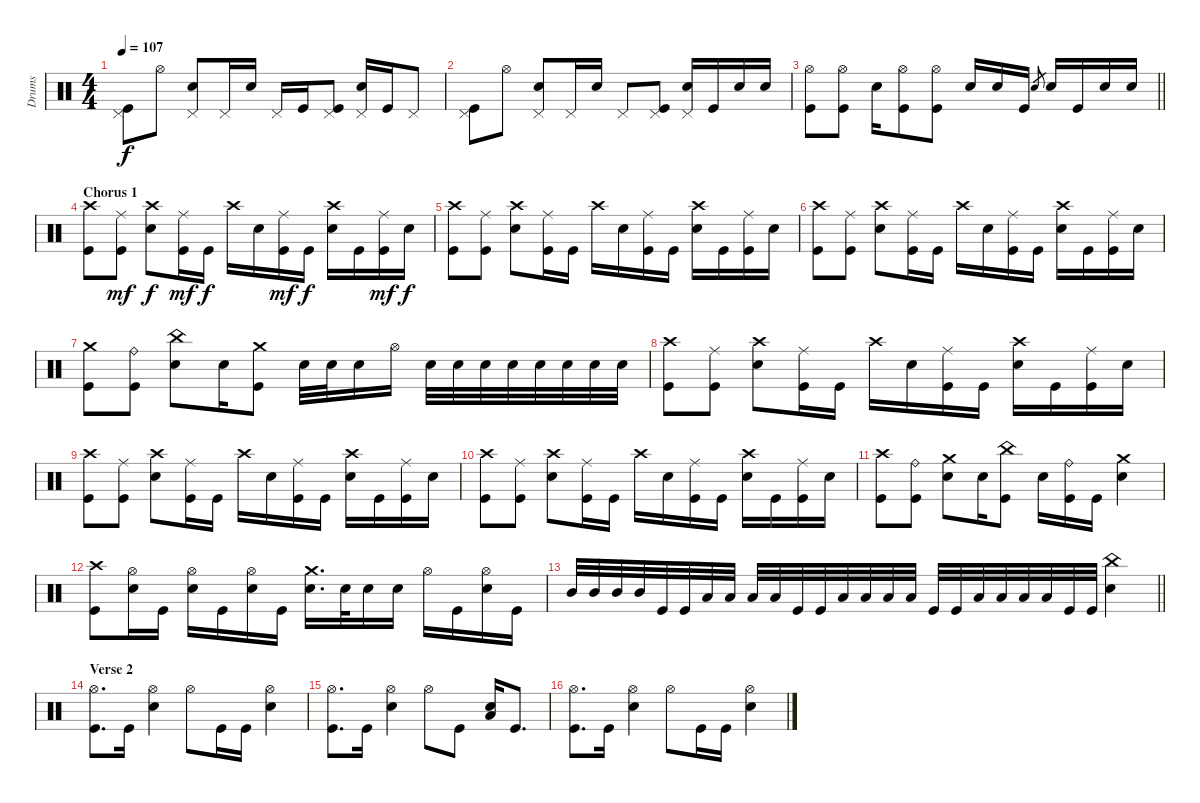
\track ("Drums" "Drums") {instrument percussion}
\staff {score}
\articulation defaults
\ts (4 4)
\tempo 107
\clef neutral
\ks c
("Pedal Hi-Hat (hit)" "Kick (hit)").8{dy f} "Hi-Hat (open)".8 ("Pedal Hi-Hat (hit)" "Snare (hit) 2").8 "Pedal Hi-Hat (hit)".16 "Snare (hit) 2".16 "Pedal Hi-Hat (hit)".16 "Kick (hit)".16 ("Pedal Hi-Hat (hit)" "Kick (hit)").8 ("Pedal Hi-Hat (hit)" "Snare (hit) 2").16 "Kick (hit)".16 "Pedal Hi-Hat (hit)".8 |
("Pedal Hi-Hat (hit)" "Kick (hit)").8 "Hi-Hat (open)".8 ("Pedal Hi-Hat (hit)" "Snare (hit) 2").8 "Pedal Hi-Hat (hit)".16 "Snare (hit) 2".16 "Pedal Hi-Hat (hit)".8 ("Pedal Hi-Hat (hit)" "Kick (hit)").8 ("Pedal Hi-Hat (hit)" "Snare (hit) 2").16 "Kick (hit)".16 "Snare (hit) 2".16 "Snare (hit) 2".16 |
\barLineRight lightlight
("Hi-Hat (open)" "Kick (hit)").8 ("Hi-Hat (open)" "Kick (hit)").8 "Snare (hit) 2".16 ("Hi-Hat (open)" "Kick (hit)").8 ("Hi-Hat (open)" "Kick (hit)").8 "Snare (hit) 2".16 "Snare (hit) 2".16 "Kick (hit)".16 "Snare (hit) 2".8{gr} "Snare (hit) 2".16 "Kick (hit)".16 "Snare (hit) 2".16 "Snare (hit) 2".16 |
\section ("" "Chorus 1")
("Crash high (hit)" "Kick (hit)").8 ("Ride (middle)" "Kick (hit)").8{dy mf} ("Crash high (hit)" "Snare (hit) 2").8{dy f} ("Ride (middle)" "Kick (hit)").16{dy mf} "Kick (hit)".16{dy f} "Crash high (hit)".16 "Snare (hit) 2".16 ("Ride (middle)" "Kick (hit)").16{dy mf} "Kick (hit)".16{dy f} ("Crash high (hit)" "Snare (hit) 2").16 "Kick (hit)".16 ("Ride (middle)" "Kick (hit)").16{dy mf} "Snare (hit) 2".16{dy f} |
("Crash high (hit)" "Kick (hit)").8 ("Ride (middle)" "Kick (hit)").8 ("Crash high (hit)" "Snare (hit) 2").8 ("Ride (middle)" "Kick (hit)").16 "Kick (hit)".16 "Crash high (hit)".16 "Snare (hit) 2".16 ("Ride (middle)" "Kick (hit)").16 "Kick (hit)".16 ("Crash high (hit)" "Snare (hit) 2").16 "Kick (hit)".16 ("Ride (middle)" "Kick (hit)").16 "Snare (hit) 2".16 |
("Crash high (hit)" "Kick (hit)").8 ("Ride (middle)" "Kick (hit)").8 ("Crash high (hit)" "Snare (hit) 2").8 ("Ride (middle)" "Kick (hit)").16 "Kick (hit)".16 "Crash high (hit)".16 "Snare (hit) 2".16 ("Ride (middle)" "Kick (hit)").16 "Kick (hit)".16 ("Crash high (hit)" "Snare (hit) 2").16 "Kick (hit)".16 ("Ride (middle)" "Kick (hit)").16 "Snare (hit) 2".16 |
("Crash medium (hit)" "Kick (hit)").8 ("Ride (bell)" "Kick (hit)").8 ("China (hit)" "Snare (hit) 2").8 "Snare (hit) 2".16 ("Crash medium (hit)" "Kick (hit)").8 "Snare (hit) 2".32 "Snare (hit) 2".32 "Snare (hit) 2".16 "Hi-Hat (open)".16 "Snare (hit) 2".32 "Snare (hit) 2".32 "Snare (hit) 2".32 "Snare (hit) 2".32 "Snare (hit) 2".32 "Snare (hit) 2".32 "Snare (hit) 2".32 "Snare (hit) 2".32 |
("Crash high (hit)" "Kick (hit)").8 ("Ride (middle)" "Kick (hit)").8 ("Crash high (hit)" "Snare (hit) 2").8 ("Ride (middle)" "Kick (hit)").16 "Kick (hit)".16 "Crash high (hit)".16 "Snare (hit) 2".16 ("Ride (middle)" "Kick (hit)").16 "Kick (hit)".16 ("Crash high (hit)" "Snare (hit) 2").16 "Kick (hit)".16 ("Ride (middle)" "Kick (hit)").16 "Snare (hit) 2".16 |
("Crash high (hit)" "Kick (hit)").8 ("Ride (middle)" "Kick (hit)").8 ("Crash high (hit)" "Snare (hit) 2").8 ("Ride (middle)" "Kick (hit)").16 "Kick (hit)".16 "Crash high (hit)".16 "Snare (hit) 2".16 ("Ride (middle)" "Kick (hit)").16 "Kick (hit)".16 ("Crash high (hit)" "Snare (hit) 2").16 "Kick (hit)".16 ("Ride (middle)" "Kick (hit)").16 "Snare (hit) 2".16 |
("Crash high (hit)" "Kick (hit)").8 ("Ride (middle)" "Kick (hit)").8 ("Crash high (hit)" "Snare (hit) 2").8 ("Ride (middle)" "Kick (hit)").16 "Kick (hit)".16 "Crash high (hit)".16 "Snare (hit) 2".16 ("Ride (middle)" "Kick (hit)").16 "Kick (hit)".16 ("Crash high (hit)" "Snare (hit) 2").16 "Kick (hit)".16 ("Ride (middle)" "Kick (hit)").16 "Snare (hit) 2".16 |
("Crash high (hit)" "Kick (hit)").8 ("Ride (bell)" "Kick (hit)").8 ("Crash medium (hit)" "Snare (hit) 2").8 "Snare (hit) 2".16 ("China (hit)" "Kick (hit)").8 "Snare (hit) 2".16 ("Ride (bell)" "Kick (hit)").16 "Kick (hit)".16 ("Crash medium (hit)" "Snare (hit) 2").4 |
("Crash high (hit)" "Kick (hit)").8 ("Hi-Hat (open)" "Snare (hit) 2").16 "Kick (hit)".16 ("Hi-Hat (open)" "Snare (hit) 2").16 "Kick (hit)".16 ("Hi-Hat (open)" "Snare (hit) 2").16 "Kick (hit)".16 ("Crash medium (hit)" "Snare (hit) 2").16{d} "Snare (hit) 2".32 "Snare (hit) 2".16 "Snare (hit) 2".16 "Hi-Hat (open)".16 "Kick (hit)".16 ("Hi-Hat (open)" "Snare (hit) 2").16 "Kick (hit)".16 |
\barLineRight lightlight "Mid Tom (hit)".32 "Mid Tom (hit)".32 "Mid Tom (hit)".32 "Mid Tom (hit)".32 "Kick (hit)".32 "Kick (hit)".32 "Low Tom (hit)".32 "Low Tom (hit)".32 "Low Tom (hit)".32 "Low Tom (hit)".32 "Kick (hit)".32 "Kick (hit)".32 "Low Floor Tom (hit)".32 "Low Floor Tom (hit)".32 "Low Tom (hit)".32 "Low Tom (hit)".32 "Kick (hit)".32 "Kick (hit)".32 "Low Tom (hit)".32 "Low Tom (hit)".32 "Low Tom (hit)".32 "Low Tom (hit)".32 "Kick (hit)".32 "Kick (hit)".32
("China (hit)" "Snare (hit) 2").4 |
\section ("" "Verse 2")
("Hi-Hat (open)" "Kick (hit)").8{d} "Kick (hit)".16 ("Hi-Hat (open)" "Snare (hit) 2").4 "Hi-Hat (open)".8 "Kick (hit)".16 "Kick (hit)".16 ("Hi-Hat (open)" "Snare (hit) 2").4 |
("Hi-Hat (open)" "Kick (hit)").8{d} "Kick (hit)".16 ("Hi-Hat (open)" "Snare (hit) 2").4 "Hi-Hat (open)".8 "Kick (hit)".8 ("Low Tom (hit)" "Snare (hit) 2").16 "Kick (hit)".8{d} |
("Hi-Hat (open)" "Kick (hit)").8{d} "Kick (hit)".16 ("Hi-Hat (open)" "Snare (hit) 2").4 "Hi-Hat (open)".8 "Kick (hit)".16 "Kick (hit)".16 ("Hi-Hat (open)" "Snare (hit) 2").4
